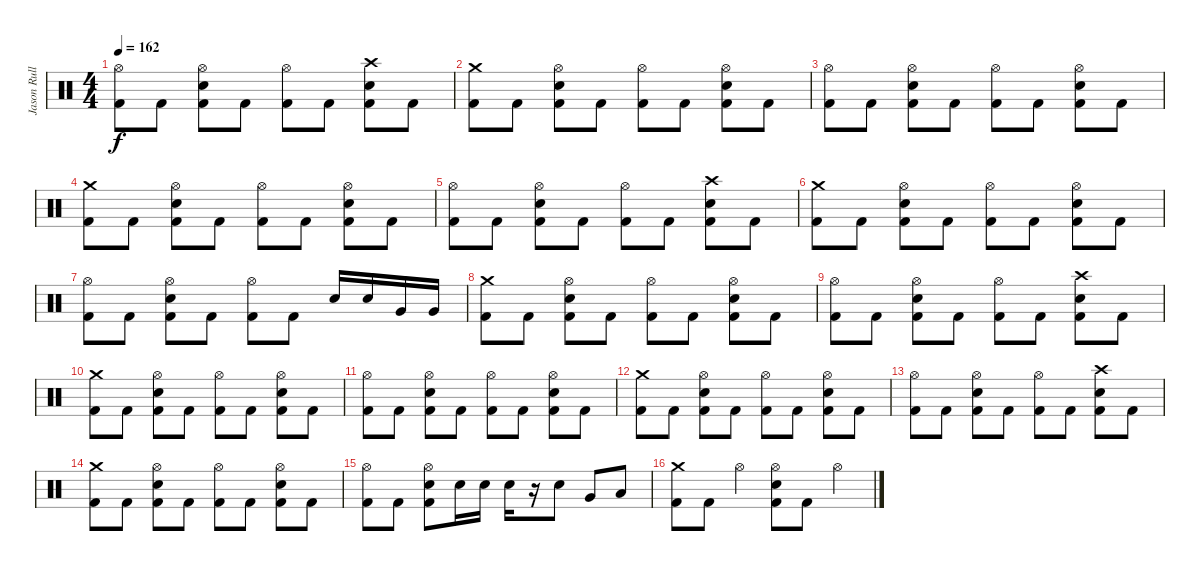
\track ("Jason Rullo" "Jason Rull") {instrument percussion}
\staff {score}
\articulation defaults
\ts (4 4)
\tempo 162
\clef neutral
\ks c
("Hi-Hat (open)" "Kick (hit) 2").8{dy f} "Kick (hit) 2".8 ("Hi-Hat (open)" "Electric Snare (hit)" "Kick (hit) 2").8 "Kick (hit) 2".8 ("Hi-Hat (open)" "Kick (hit) 2").8 "Kick (hit) 2".8 ("Crash high (hit)" "Electric Snare (hit)" "Kick (hit) 2").8 "Kick (hit) 2".8 |
("Crash medium (hit)" "Kick (hit) 2").8 "Kick (hit) 2".8 ("Hi-Hat (open)" "Electric Snare (hit)" "Kick (hit) 2").8 "Kick (hit) 2".8 ("Hi-Hat (open)" "Kick (hit) 2").8 "Kick (hit) 2".8 ("Hi-Hat (open)" "Electric Snare (hit)" "Kick (hit) 2").8 "Kick (hit) 2".8 |
("Hi-Hat (open)" "Kick (hit) 2").8 "Kick (hit) 2".8 ("Hi-Hat (open)" "Electric Snare (hit)" "Kick (hit) 2").8 "Kick (hit) 2".8 ("Hi-Hat (open)" "Kick (hit) 2").8 "Kick (hit) 2".8 ("Hi-Hat (open)" "Electric Snare (hit)" "Kick (hit) 2").8 "Kick (hit) 2".8 |
("Crash medium (hit)" "Kick (hit) 2").8 "Kick (hit) 2".8 ("Hi-Hat (open)" "Electric Snare (hit)" "Kick (hit) 2").8 "Kick (hit) 2".8 ("Hi-Hat (open)" "Kick (hit) 2").8 "Kick (hit) 2".8 ("Hi-Hat (open)" "Electric Snare (hit)" "Kick (hit) 2").8 "Kick (hit) 2".8 |
("Hi-Hat (open)" "Kick (hit) 2").8 "Kick (hit) 2".8 ("Hi-Hat (open)" "Electric Snare (hit)" "Kick (hit) 2").8 "Kick (hit) 2".8 ("Hi-Hat (open)" "Kick (hit) 2").8 "Kick (hit) 2".8 ("Crash high (hit)" "Electric Snare (hit)" "Kick (hit) 2").8 "Kick (hit) 2".8 |
("Crash medium (hit)" "Kick (hit) 2").8 "Kick (hit) 2".8 ("Hi-Hat (open)" "Electric Snare (hit)" "Kick (hit) 2").8 "Kick (hit) 2".8 ("Hi-Hat (open)" "Kick (hit) 2").8 "Kick (hit) 2".8 ("Hi-Hat (open)" "Electric Snare (hit)" "Kick (hit) 2").8 "Kick (hit) 2".8 |
("Hi-Hat (open)" "Kick (hit) 2").8 "Kick (hit) 2".8 ("Hi-Hat (open)" "Electric Snare (hit)" "Kick (hit) 2").8 "Kick (hit) 2".8 ("Hi-Hat (open)" "Kick (hit) 2").8 "Kick (hit) 2".8 "Electric Snare (hit)".16 "Electric Snare (hit)".16 "Very Low Tom (hit)".16 "Very Low Tom (hit)".16 |
("Crash medium (hit)" "Kick (hit) 2").8 "Kick (hit) 2".8 ("Hi-Hat (open)" "Electric Snare (hit)" "Kick (hit) 2").8 "Kick (hit) 2".8 ("Hi-Hat (open)" "Kick (hit) 2").8 "Kick (hit) 2".8 ("Hi-Hat (open)" "Electric Snare (hit)" "Kick (hit) 2").8 "Kick (hit) 2".8 |
("Hi-Hat (open)" "Kick (hit) 2").8 "Kick (hit) 2".8 ("Hi-Hat (open)" "Electric Snare (hit)" "Kick (hit) 2").8 "Kick (hit) 2".8 ("Hi-Hat (open)" "Kick (hit) 2").8 "Kick (hit) 2".8 ("Crash high (hit)" "Electric Snare (hit)" "Kick (hit) 2").8 "Kick (hit) 2".8 |
("Crash medium (hit)" "Kick (hit) 2").8 "Kick (hit) 2".8 ("Hi-Hat (open)" "Electric Snare (hit)" "Kick (hit) 2").8 "Kick (hit) 2".8 ("Hi-Hat (open)" "Kick (hit) 2").8 "Kick (hit) 2".8 ("Hi-Hat (open)" "Electric Snare (hit)" "Kick (hit) 2").8 "Kick (hit) 2".8 |
("Hi-Hat (open)" "Kick (hit) 2").8 "Kick (hit) 2".8 ("Hi-Hat (open)" "Electric Snare (hit)" "Kick (hit) 2").8 "Kick (hit) 2".8 ("Hi-Hat (open)" "Kick (hit) 2").8 "Kick (hit) 2".8 ("Hi-Hat (open)" "Electric Snare (hit)" "Kick (hit) 2").8 "Kick (hit) 2".8 |
("Crash medium (hit)" "Kick (hit) 2").8 "Kick (hit) 2".8 ("Hi-Hat (open)" "Electric Snare (hit)" "Kick (hit) 2").8 "Kick (hit) 2".8 ("Hi-Hat (open)" "Kick (hit) 2").8 "Kick (hit) 2".8 ("Hi-Hat (open)" "Electric Snare (hit)" "Kick (hit) 2").8 "Kick (hit) 2".8 |
("Hi-Hat (open)" "Kick (hit) 2").8 "Kick (hit) 2".8 ("Hi-Hat (open)" "Electric Snare (hit)" "Kick (hit) 2").8 "Kick (hit) 2".8 ("Hi-Hat (open)" "Kick (hit) 2").8 "Kick (hit) 2".8 ("Crash high (hit)" "Electric Snare (hit)" "Kick (hit) 2").8 "Kick (hit) 2".8 |
("Crash medium (hit)" "Kick (hit) 2").8 "Kick (hit) 2".8 ("Hi-Hat (open)" "Electric Snare (hit)" "Kick (hit) 2").8 "Kick (hit) 2".8 ("Hi-Hat (open)" "Kick (hit) 2").8 "Kick (hit) 2".8 ("Hi-Hat (open)" "Electric Snare (hit)" "Kick (hit) 2").8 "Kick (hit) 2".8 |
("Hi-Hat (open)" "Kick (hit) 2").8 "Kick (hit) 2".8 ("Hi-Hat (open)" "Electric Snare (hit)" "Kick (hit) 2").8 "Electric Snare (hit)".16 "Electric Snare (hit)".16 "Electric Snare (hit)".16 r.16 "Electric Snare (hit)".8 "Very Low Tom (hit)".8 "Low Floor Tom (hit)".8 |
("Kick (hit) 2" "Crash medium (hit)").8 "Kick (hit) 2".8 "Hi-Hat (open)".4 ("Kick (hit) 2" "Electric Snare (hit)" "Hi-Hat (open)").8 "Kick (hit) 2".8 "Hi-Hat (open)".4
